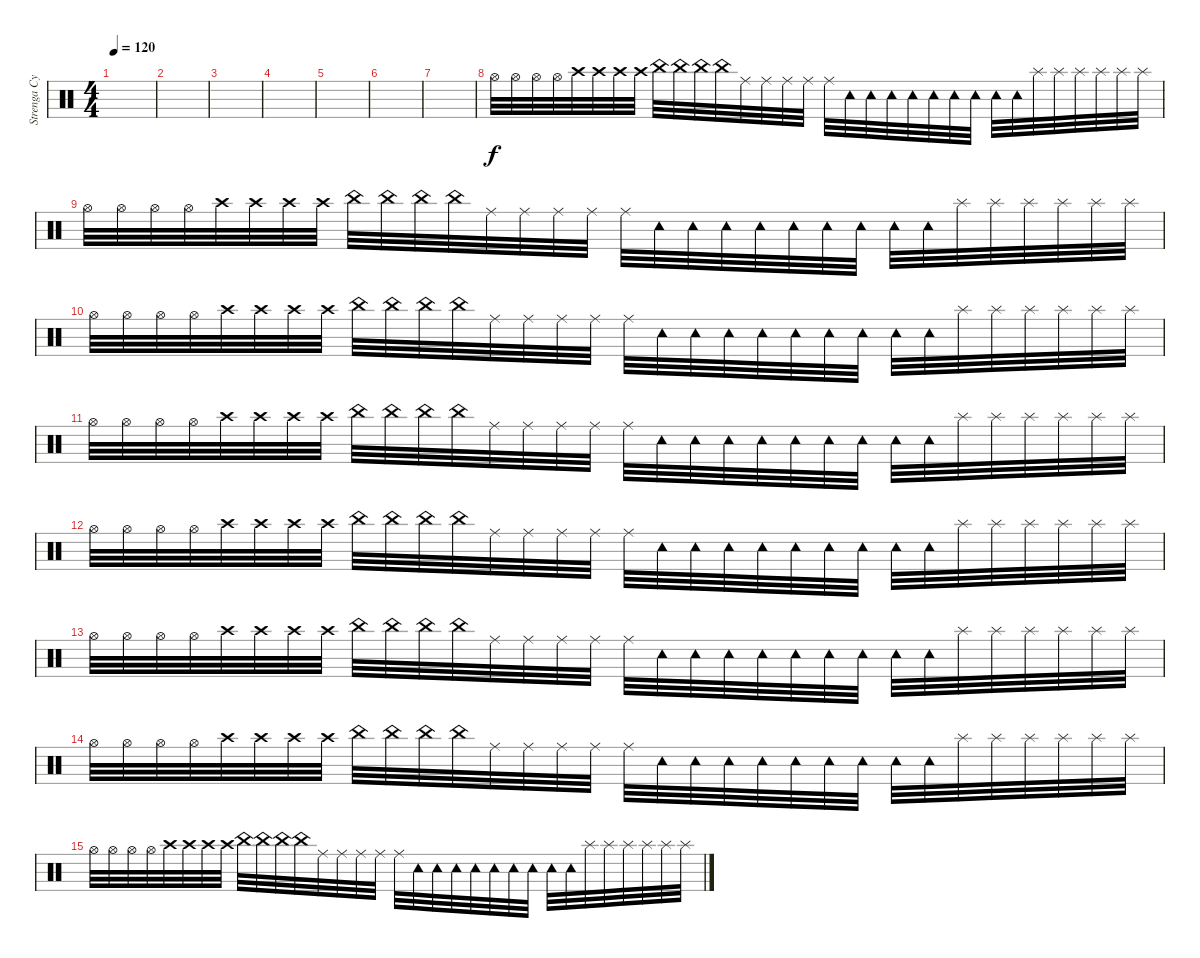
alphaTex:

\track ("Strenga Cymbals efekt - Tarkin" "Strenga Cy") {instrument percussion}
\staff {score}
\articulation defaults
\ts (4 4)
\tempo 120
\clef neutral
\ks c
|
|
|
|
|
|
|
"Hi-Hat (open)".32 "Hi-Hat (open)".32 "Hi-Hat (open)".32 "Hi-Hat (open)".32 "Crash high (hit)".32 "Crash high (hit)".32 "Crash high (hit)".32 "Crash high (hit)".32 "China (hit)".32 "China (hit)".32 "China (hit)".32 "China (hit)".32 "Ride (middle)".32 "Ride (middle)".32 "Ride (middle)".32 "Ride (middle)".32 "Ride (middle)".32 "Tambourine (hit)".32 "Tambourine (hit)".32 "Tambourine (hit)".32 "Tambourine (hit)".32 "Tambourine (hit)".32 "Tambourine (hit)".32 "Tambourine (hit)".32 "Tambourine (hit)".32 "Tambourine (hit)".32 "Splash (hit)".32 "Splash (hit)".32 "Splash (hit)".32 "Splash (hit)".32 "Splash (hit)".32 "Splash (hit)".32 |
"Hi-Hat (open)".32 "Hi-Hat (open)".32 "Hi-Hat (open)".32 "Hi-Hat (open)".32 "Crash high (hit)".32 "Crash high (hit)".32 "Crash high (hit)".32 "Crash high (hit)".32 "China (hit)".32 "China (hit)".32 "China (hit)".32 "China (hit)".32 "Ride (middle)".32 "Ride (middle)".32 "Ride (middle)".32 "Ride (middle)".32 "Ride (middle)".32 "Tambourine (hit)".32 "Tambourine (hit)".32 "Tambourine (hit)".32 "Tambourine (hit)".32 "Tambourine (hit)".32 "Tambourine (hit)".32 "Tambourine (hit)".32 "Tambourine (hit)".32 "Tambourine (hit)".32 "Splash (hit)".32 "Splash (hit)".32 "Splash (hit)".32 "Splash (hit)".32 "Splash (hit)".32 "Splash (hit)".32 |
"Hi-Hat (open)".32 "Hi-Hat (open)".32 "Hi-Hat (open)".32 "Hi-Hat (open)".32 "Crash high (hit)".32 "Crash high (hit)".32 "Crash high (hit)".32 "Crash high (hit)".32 "China (hit)".32 "China (hit)".32 "China (hit)".32 "China (hit)".32 "Ride (middle)".32 "Ride (middle)".32 "Ride (middle)".32 "Ride (middle)".32 "Ride (middle)".32 "Tambourine (hit)".32 "Tambourine (hit)".32 "Tambourine (hit)".32 "Tambourine (hit)".32 "Tambourine (hit)".32 "Tambourine (hit)".32 "Tambourine (hit)".32 "Tambourine (hit)".32 "Tambourine (hit)".32 "Splash (hit)".32 "Splash (hit)".32 "Splash (hit)".32 "Splash (hit)".32 "Splash (hit)".32 "Splash (hit)".32 |
"Hi-Hat (open)".32 "Hi-Hat (open)".32 "Hi-Hat (open)".32 "Hi-Hat (open)".32 "Crash high (hit)".32 "Crash high (hit)".32 "Crash high (hit)".32 "Crash high (hit)".32 "China (hit)".32 "China (hit)".32 "China (hit)".32 "China (hit)".32 "Ride (middle)".32 "Ride (middle)".32 "Ride (middle)".32 "Ride (middle)".32 "Ride (middle)".32 "Tambourine (hit)".32 "Tambourine (hit)".32 "Tambourine (hit)".32 "Tambourine (hit)".32 "Tambourine (hit)".32 "Tambourine (hit)".32 "Tambourine (hit)".32 "Tambourine (hit)".32 "Tambourine (hit)".32 "Splash (hit)".32 "Splash (hit)".32 "Splash (hit)".32 "Splash (hit)".32 "Splash (hit)".32 "Splash (hit)".32 |
"Hi-Hat (open)".32 "Hi-Hat (open)".32 "Hi-Hat (open)".32 "Hi-Hat (open)".32 "Crash high (hit)".32 "Crash high (hit)".32 "Crash high (hit)".32 "Crash high (hit)".32 "China (hit)".32 "China (hit)".32 "China (hit)".32 "China (hit)".32 "Ride (middle)".32 "Ride (middle)".32 "Ride (middle)".32 "Ride (middle)".32 "Ride (middle)".32 "Tambourine (hit)".32 "Tambourine (hit)".32 "Tambourine (hit)".32 "Tambourine (hit)".32 "Tambourine (hit)".32 "Tambourine (hit)".32 "Tambourine (hit)".32 "Tambourine (hit)".32 "Tambourine (hit)".32 "Splash (hit)".32 "Splash (hit)".32 "Splash (hit)".32 "Splash (hit)".32 "Splash (hit)".32 "Splash (hit)".32 |
"Hi-Hat (open)".32 "Hi-Hat (open)".32 "Hi-Hat (open)".32 "Hi-Hat (open)".32 "Crash high (hit)".32 "Crash high (hit)".32 "Crash high (hit)".32 "Crash high (hit)".32 "China (hit)".32 "China (hit)".32 "China (hit)".32 "China (hit)".32 "Ride (middle)".32 "Ride (middle)".32 "Ride (middle)".32 "Ride (middle)".32 "Ride (middle)".32 "Tambourine (hit)".32 "Tambourine (hit)".32 "Tambourine (hit)".32 "Tambourine (hit)".32 "Tambourine (hit)".32 "Tambourine (hit)".32 "Tambourine (hit)".32 "Tambourine (hit)".32 "Tambourine (hit)".32 "Splash (hit)".32 "Splash (hit)".32 "Splash (hit)".32 "Splash (hit)".32 "Splash (hit)".32 "Splash (hit)".32 |
"Hi-Hat (open)".32 "Hi-Hat (open)".32 "Hi-Hat (open)".32 "Hi-Hat (open)".32 "Crash high (hit)".32 "Crash high (hit)".32 "Crash high (hit)".32 "Crash high (hit)".32 "China (hit)".32 "China (hit)".32 "China (hit)".32 "China (hit)".32 "Ride (middle)".32 "Ride (middle)".32 "Ride (middle)".32 "Ride (middle)".32 "Ride (middle)".32 "Tambourine (hit)".32 "Tambourine (hit)".32 "Tambourine (hit)".32 "Tambourine (hit)".32 "Tambourine (hit)".32 "Tambourine (hit)".32 "Tambourine (hit)".32 "Tambourine (hit)".32 "Tambourine (hit)".32 "Splash (hit)".32 "Splash (hit)".32 "Splash (hit)".32 "Splash (hit)".32 "Splash (hit)".32 "Splash (hit)".32 |
"Hi-Hat (open)".32 "Hi-Hat (open)".32 "Hi-Hat (open)".32 "Hi-Hat (open)".32 "Crash high (hit)".32 "Crash high (hit)".32 "Crash high (hit)".32 "Crash high (hit)".32 "China (hit)".32 "China (hit)".32 "China (hit)".32 "China (hit)".32 "Ride (middle)".32 "Ride (middle)".32 "Ride (middle)".32 "Ride (middle)".32 "Ride (middle)".32 "Tambourine (hit)".32 "Tambourine (hit)".32 "Tambourine (hit)".32 "Tambourine (hit)".32 "Tambourine (hit)".32 "Tambourine (hit)".32 "Tambourine (hit)".32 "Tambourine (hit)".32 "Tambourine (hit)".32 "Splash (hit)".32 "Splash (hit)".32 "Splash (hit)".32 "Splash (hit)".32 "Splash (hit)".32 "Splash (hit)".32
